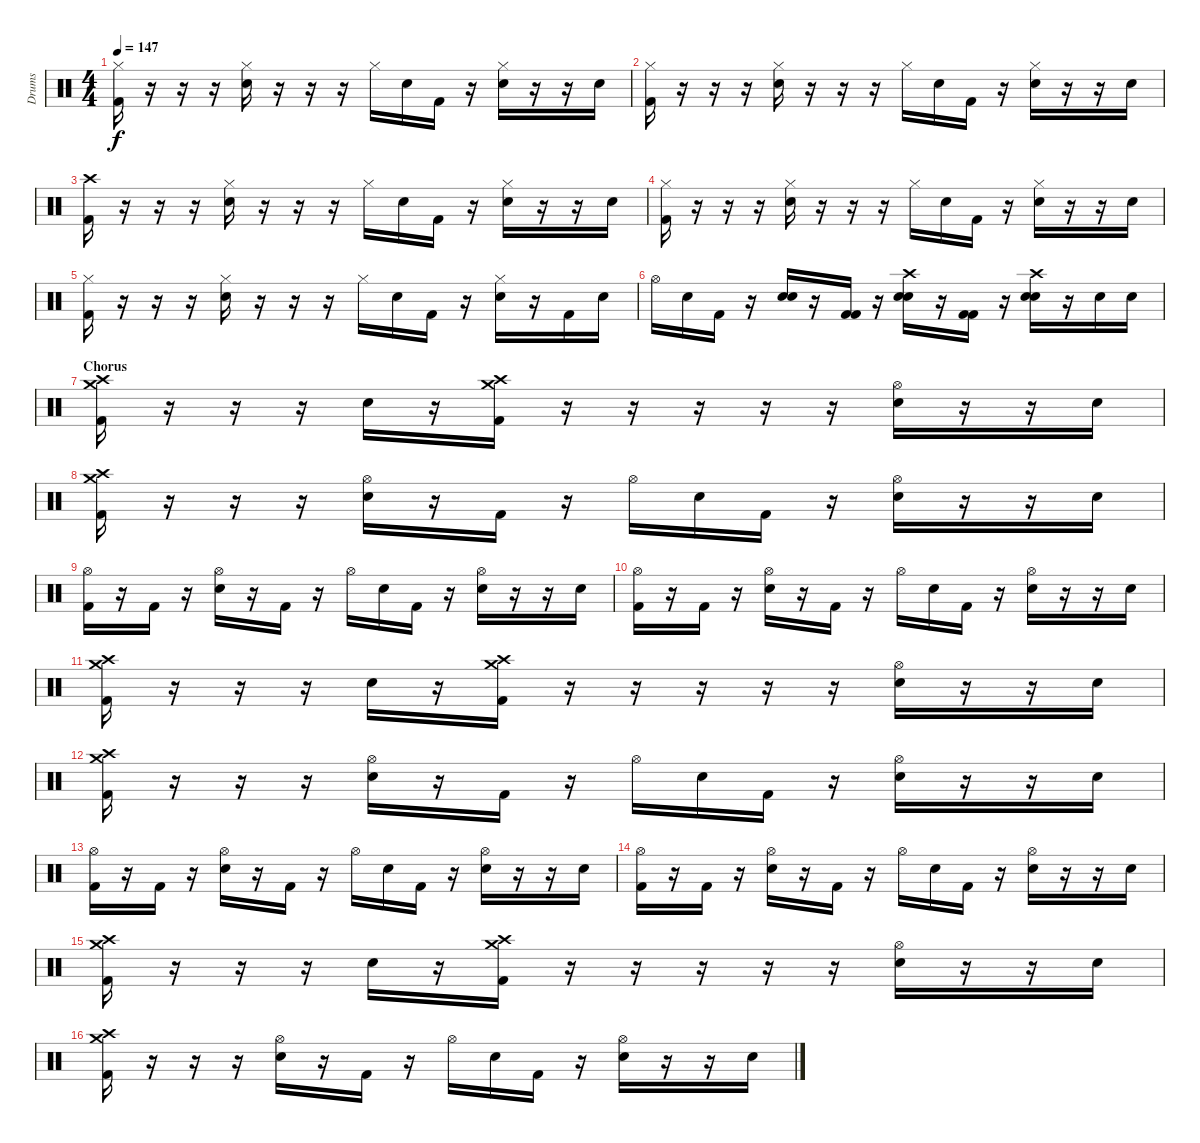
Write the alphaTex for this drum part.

\track ("Drums" "Drums") {instrument percussion}
\staff {score}
\articulation defaults
\ts (4 4)
\tempo 147
\clef neutral
\ks c
("Hi-Hat (closed)" "Kick (hit) 2").16{dy f} r.16 r.16 r.16 ("Hi-Hat (closed)" "Snare (hit) 2").16 r.16 r.16 r.16 "Hi-Hat (closed)".16 "Snare (hit) 2".16 "Kick (hit) 2".16 r.16 ("Hi-Hat (closed)" "Snare (hit) 2").16 r.16 r.16 "Snare (hit) 2".16 |
("Hi-Hat (closed)" "Kick (hit) 2").16 r.16 r.16 r.16 ("Hi-Hat (closed)" "Snare (hit) 2").16 r.16 r.16 r.16 "Hi-Hat (closed)".16 "Snare (hit) 2".16 "Kick (hit) 2".16 r.16 ("Hi-Hat (closed)" "Snare (hit) 2").16 r.16 r.16 "Snare (hit) 2".16 |
("Crash high (hit)" "Kick (hit) 2").16 r.16 r.16 r.16 ("Hi-Hat (closed)" "Snare (hit) 2").16 r.16 r.16 r.16 "Hi-Hat (closed)".16 "Snare (hit) 2".16 "Kick (hit) 2".16 r.16 ("Hi-Hat (closed)" "Snare (hit) 2").16 r.16 r.16 "Snare (hit) 2".16 |
("Hi-Hat (closed)" "Kick (hit) 2").16 r.16 r.16 r.16 ("Hi-Hat (closed)" "Snare (hit) 2").16 r.16 r.16 r.16 "Hi-Hat (closed)".16 "Snare (hit) 2".16 "Kick (hit) 2".16 r.16 ("Hi-Hat (closed)" "Snare (hit) 2").16 r.16 r.16 "Snare (hit) 2".16 |
("Hi-Hat (closed)" "Kick (hit) 2").16 r.16 r.16 r.16 ("Hi-Hat (closed)" "Snare (hit) 2").16 r.16 r.16 r.16 "Hi-Hat (closed)".16 "Snare (hit) 2".16 "Kick (hit) 2".16 r.16 ("Hi-Hat (closed)" "Snare (hit) 2").16 r.16 "Kick (hit) 2".16 "Snare (hit) 2".16 |
"Hi-Hat (open)".16 "Snare (hit) 2".16 "Kick (hit) 2".16 r.16 ("Snare (hit) 2" "Snare (hit) 2").16 r.16 ("Kick (hit) 2" "Kick (hit) 2").16 r.16 ("Crash high (hit)" "Snare (hit) 2" "Snare (hit) 2").16 r.16 ("Kick (hit) 2" "Kick (hit) 2").16 r.16 ("Crash high (hit)" "Snare (hit) 2" "Snare (hit) 2").16 r.16 "Snare (hit) 2".16 "Snare (hit) 2".16 |
\section ("" "Chorus")
("Crash high (hit)" "Crash medium (hit)" "Kick (hit) 2").16 r.16 r.16 r.16 "Snare (hit) 2".16 r.16 ("Crash high (hit)" "Crash medium (hit)" "Kick (hit) 2").16 r.16 r.16 r.16 r.16 r.16 ("Hi-Hat (open)" "Snare (hit) 2").16 r.16 r.16 "Snare (hit) 2".16 |
("Crash high (hit)" "Crash medium (hit)" "Kick (hit) 2").16 r.16 r.16 r.16 ("Hi-Hat (open)" "Snare (hit) 2").16 r.16 "Kick (hit) 2".16 r.16 "Hi-Hat (open)".16 "Snare (hit) 2".16 "Kick (hit) 2".16 r.16 ("Hi-Hat (open)" "Snare (hit) 2").16 r.16 r.16 "Snare (hit) 2".16 |
("Hi-Hat (open)" "Kick (hit) 2").16 r.16 "Kick (hit) 2".16 r.16 ("Hi-Hat (open)" "Snare (hit) 2").16 r.16 "Kick (hit) 2".16 r.16 "Hi-Hat (open)".16 "Snare (hit) 2".16 "Kick (hit) 2".16 r.16 ("Hi-Hat (open)" "Snare (hit) 2").16 r.16 r.16 "Snare (hit) 2".16 |
("Hi-Hat (open)" "Kick (hit) 2").16 r.16 "Kick (hit) 2".16 r.16 ("Hi-Hat (open)" "Snare (hit) 2").16 r.16 "Kick (hit) 2".16 r.16 "Hi-Hat (open)".16 "Snare (hit) 2".16 "Kick (hit) 2".16 r.16 ("Hi-Hat (open)" "Snare (hit) 2").16 r.16 r.16 "Snare (hit) 2".16 |
("Crash high (hit)" "Crash medium (hit)" "Kick (hit) 2").16 r.16 r.16 r.16 "Snare (hit) 2".16 r.16 ("Crash high (hit)" "Crash medium (hit)" "Kick (hit) 2").16 r.16 r.16 r.16 r.16 r.16 ("Hi-Hat (open)" "Snare (hit) 2").16 r.16 r.16 "Snare (hit) 2".16 |
("Crash high (hit)" "Crash medium (hit)" "Kick (hit) 2").16 r.16 r.16 r.16 ("Hi-Hat (open)" "Snare (hit) 2").16 r.16 "Kick (hit) 2".16 r.16 "Hi-Hat (open)".16 "Snare (hit) 2".16 "Kick (hit) 2".16 r.16 ("Hi-Hat (open)" "Snare (hit) 2").16 r.16 r.16 "Snare (hit) 2".16 |
("Hi-Hat (open)" "Kick (hit) 2").16 r.16 "Kick (hit) 2".16 r.16 ("Hi-Hat (open)" "Snare (hit) 2").16 r.16 "Kick (hit) 2".16 r.16 "Hi-Hat (open)".16 "Snare (hit) 2".16 "Kick (hit) 2".16 r.16 ("Hi-Hat (open)" "Snare (hit) 2").16 r.16 r.16 "Snare (hit) 2".16 |
("Hi-Hat (open)" "Kick (hit) 2").16 r.16 "Kick (hit) 2".16 r.16 ("Hi-Hat (open)" "Snare (hit) 2").16 r.16 "Kick (hit) 2".16 r.16 "Hi-Hat (open)".16 "Snare (hit) 2".16 "Kick (hit) 2".16 r.16 ("Hi-Hat (open)" "Snare (hit) 2").16 r.16 r.16 "Snare (hit) 2".16 |
("Crash high (hit)" "Crash medium (hit)" "Kick (hit) 2").16 r.16 r.16 r.16 "Snare (hit) 2".16 r.16 ("Crash high (hit)" "Crash medium (hit)" "Kick (hit) 2").16 r.16 r.16 r.16 r.16 r.16 ("Hi-Hat (open)" "Snare (hit) 2").16 r.16 r.16 "Snare (hit) 2".16 |
("Crash high (hit)" "Crash medium (hit)" "Kick (hit) 2").16 r.16 r.16 r.16 ("Hi-Hat (open)" "Snare (hit) 2").16 r.16 "Kick (hit) 2".16 r.16 "Hi-Hat (open)".16 "Snare (hit) 2".16 "Kick (hit) 2".16 r.16 ("Hi-Hat (open)" "Snare (hit) 2").16 r.16 r.16 "Snare (hit) 2".16
